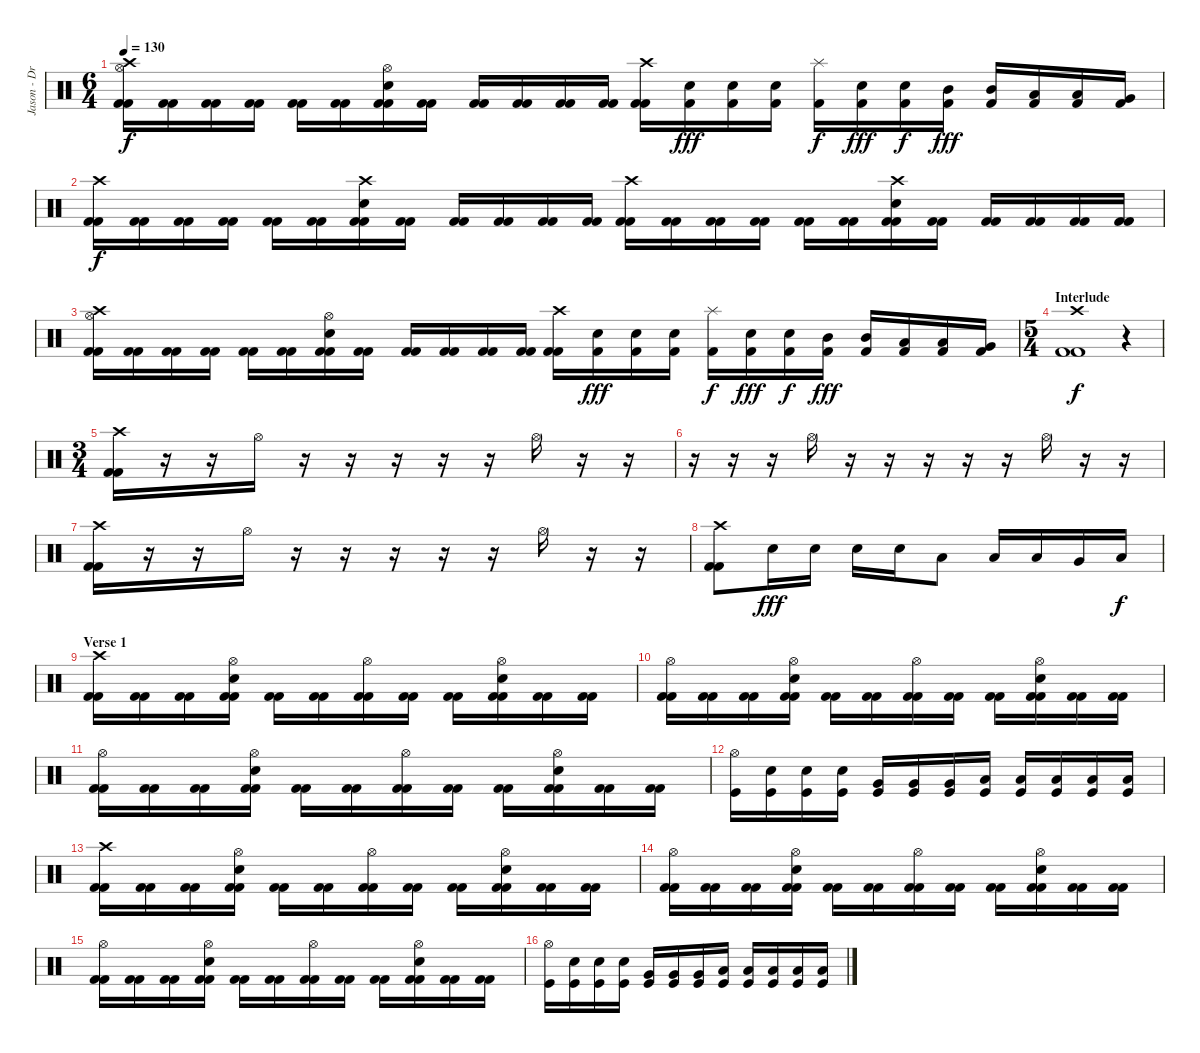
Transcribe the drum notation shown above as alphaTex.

\track ("Jason - Drums" "Jason - Dr") {instrument percussion}
\staff {score}
\articulation defaults
\ts (6 4)
\tempo 130
\clef neutral
\ks c
("Crash high (hit)" "Hi-Hat (open)" "Kick (hit) 2" "Kick (hit) 2").16{dy f} ("Kick (hit) 2" "Kick (hit) 2").16 ("Kick (hit) 2" "Kick (hit) 2").16 ("Kick (hit) 2" "Kick (hit) 2").16 ("Kick (hit) 2" "Kick (hit) 2").16 ("Kick (hit) 2" "Kick (hit) 2").16 ("Hi-Hat (open)" "Electric Snare (hit)" "Kick (hit) 2" "Kick (hit) 2").16 ("Kick (hit) 2" "Kick (hit) 2").16 ("Kick (hit) 2" "Kick (hit) 2").16 ("Kick (hit) 2" "Kick (hit) 2").16 ("Kick (hit) 2" "Kick (hit) 2").16 ("Kick (hit) 2" "Kick (hit) 2").16 ("Crash high (hit)" "Kick (hit) 2" "Kick (hit) 2").16 ("Electric Snare (hit)" "Kick (hit) 2").16{dy fff} ("Electric Snare (hit)" "Kick (hit) 2").16 ("Electric Snare (hit)" "Kick (hit) 2").16 ("Splash (hit)" "Kick (hit) 2").16{dy f} ("Electric Snare (hit)" "Kick (hit) 2").16{dy fff} ("Electric Snare (hit)" "Kick (hit) 2").16{dy f} ("Mid Tom (hit)" "Kick (hit) 2").16{dy fff} ("Mid Tom (hit)" "Kick (hit) 2").16 ("Low Tom (hit)" "Kick (hit) 2").16 ("Low Tom (hit)" "Kick (hit) 2").16 ("Very Low Tom (hit)" "Kick (hit) 2").16 |
("Crash high (hit)" "Kick (hit) 2" "Kick (hit) 2").16{dy f} ("Kick (hit) 2" "Kick (hit) 2").16 ("Kick (hit) 2" "Kick (hit) 2").16 ("Kick (hit) 2" "Kick (hit) 2").16 ("Kick (hit) 2" "Kick (hit) 2").16 ("Kick (hit) 2" "Kick (hit) 2").16 ("Crash high (hit)" "Electric Snare (hit)" "Kick (hit) 2" "Kick (hit) 2").16 ("Kick (hit) 2" "Kick (hit) 2").16 ("Kick (hit) 2" "Kick (hit) 2").16 ("Kick (hit) 2" "Kick (hit) 2").16 ("Kick (hit) 2" "Kick (hit) 2").16 ("Kick (hit) 2" "Kick (hit) 2").16 ("Crash high (hit)" "Kick (hit) 2" "Kick (hit) 2").16 ("Kick (hit) 2" "Kick (hit) 2").16 ("Kick (hit) 2" "Kick (hit) 2").16 ("Kick (hit) 2" "Kick (hit) 2").16 ("Kick (hit) 2" "Kick (hit) 2").16 ("Kick (hit) 2" "Kick (hit) 2").16 ("Crash high (hit)" "Electric Snare (hit)" "Kick (hit) 2" "Kick (hit) 2").16 ("Kick (hit) 2" "Kick (hit) 2").16 ("Kick (hit) 2" "Kick (hit) 2").16 ("Kick (hit) 2" "Kick (hit) 2").16 ("Kick (hit) 2" "Kick (hit) 2").16 ("Kick (hit) 2" "Kick (hit) 2").16 |
("Crash high (hit)" "Hi-Hat (open)" "Kick (hit) 2" "Kick (hit) 2").16 ("Kick (hit) 2" "Kick (hit) 2").16 ("Kick (hit) 2" "Kick (hit) 2").16 ("Kick (hit) 2" "Kick (hit) 2").16 ("Kick (hit) 2" "Kick (hit) 2").16 ("Kick (hit) 2" "Kick (hit) 2").16 ("Hi-Hat (open)" "Electric Snare (hit)" "Kick (hit) 2" "Kick (hit) 2").16 ("Kick (hit) 2" "Kick (hit) 2").16 ("Kick (hit) 2" "Kick (hit) 2").16 ("Kick (hit) 2" "Kick (hit) 2").16 ("Kick (hit) 2" "Kick (hit) 2").16 ("Kick (hit) 2" "Kick (hit) 2").16 ("Crash high (hit)" "Kick (hit) 2" "Kick (hit) 2").16 ("Electric Snare (hit)" "Kick (hit) 2").16{dy fff} ("Electric Snare (hit)" "Kick (hit) 2").16 ("Electric Snare (hit)" "Kick (hit) 2").16 ("Splash (hit)" "Kick (hit) 2").16{dy f} ("Electric Snare (hit)" "Kick (hit) 2").16{dy fff} ("Electric Snare (hit)" "Kick (hit) 2").16{dy f} ("Mid Tom (hit)" "Kick (hit) 2").16{dy fff} ("Mid Tom (hit)" "Kick (hit) 2").16 ("Low Tom (hit)" "Kick (hit) 2").16 ("Low Tom (hit)" "Kick (hit) 2").16 ("Very Low Tom (hit)" "Kick (hit) 2").16 |
\ts (5 4)
\section ("" "Interlude")
("Crash high (hit)" "Kick (hit) 2" "Kick (hit) 2").1{dy f} r.4 |
\ts (3 4)
("Crash high (hit)" "Kick (hit) 2" "Kick (hit) 2").16 r.16 r.16 "Hi-Hat (open)".16 r.16 r.16 r.16 r.16 r.16 "Hi-Hat (open)".16 r.16 r.16 |
r.16 r.16 r.16 "Hi-Hat (open)".16 r.16 r.16 r.16 r.16 r.16 "Hi-Hat (open)".16 r.16 r.16 |
("Crash high (hit)" "Kick (hit) 2" "Kick (hit) 2").16 r.16 r.16 "Hi-Hat (open)".16 r.16 r.16 r.16 r.16 r.16 "Hi-Hat (open)".16 r.16 r.16 |
("Crash high (hit)" "Kick (hit) 2" "Kick (hit) 2").8 "Electric Snare (hit)".16{dy fff} "Electric Snare (hit)".16 "Electric Snare (hit)".16 "Electric Snare (hit)".16 "Low Tom (hit)".8 "Low Tom (hit)".16 "Low Tom (hit)".16 "Very Low Tom (hit)".16 "Low Floor Tom (hit)".16{dy f} |
\section ("" "Verse 1")
("Crash high (hit)" "Kick (hit) 2" "Kick (hit) 2").16 ("Kick (hit) 2" "Kick (hit) 2").16 ("Kick (hit) 2" "Kick (hit) 2").16 ("Hi-Hat (open)" "Electric Snare (hit)" "Kick (hit) 2" "Kick (hit) 2").16 ("Kick (hit) 2" "Kick (hit) 2").16 ("Kick (hit) 2" "Kick (hit) 2").16 ("Hi-Hat (open)" "Kick (hit) 2" "Kick (hit) 2").16 ("Kick (hit) 2" "Kick (hit) 2").16 ("Kick (hit) 2" "Kick (hit) 2").16 ("Hi-Hat (open)" "Electric Snare (hit)" "Kick (hit) 2" "Kick (hit) 2").16 ("Kick (hit) 2" "Kick (hit) 2").16 ("Kick (hit) 2" "Kick (hit) 2").16 |
("Hi-Hat (open)" "Kick (hit) 2" "Kick (hit) 2").16 ("Kick (hit) 2" "Kick (hit) 2").16 ("Kick (hit) 2" "Kick (hit) 2").16 ("Hi-Hat (open)" "Electric Snare (hit)" "Kick (hit) 2" "Kick (hit) 2").16 ("Kick (hit) 2" "Kick (hit) 2").16 ("Kick (hit) 2" "Kick (hit) 2").16 ("Hi-Hat (open)" "Kick (hit) 2" "Kick (hit) 2").16 ("Kick (hit) 2" "Kick (hit) 2").16 ("Kick (hit) 2" "Kick (hit) 2").16 ("Hi-Hat (open)" "Electric Snare (hit)" "Kick (hit) 2" "Kick (hit) 2").16 ("Kick (hit) 2" "Kick (hit) 2").16 ("Kick (hit) 2" "Kick (hit) 2").16 |
("Hi-Hat (open)" "Kick (hit) 2" "Kick (hit) 2").16 ("Kick (hit) 2" "Kick (hit) 2").16 ("Kick (hit) 2" "Kick (hit) 2").16 ("Hi-Hat (open)" "Electric Snare (hit)" "Kick (hit) 2" "Kick (hit) 2").16 ("Kick (hit) 2" "Kick (hit) 2").16 ("Kick (hit) 2" "Kick (hit) 2").16 ("Hi-Hat (open)" "Kick (hit) 2" "Kick (hit) 2").16 ("Kick (hit) 2" "Kick (hit) 2").16 ("Kick (hit) 2" "Kick (hit) 2").16 ("Hi-Hat (open)" "Electric Snare (hit)" "Kick (hit) 2" "Kick (hit) 2").16 ("Kick (hit) 2" "Kick (hit) 2").16 ("Kick (hit) 2" "Kick (hit) 2").16 |
("Hi-Hat (open)" "Kick (hit)").16 ("Electric Snare (hit)" "Kick (hit)").16 ("Electric Snare (hit)" "Kick (hit)").16 ("Electric Snare (hit)" "Kick (hit)").16 ("Very Low Tom (hit)" "Kick (hit)").16 ("Very Low Tom (hit)" "Kick (hit)").16 ("Very Low Tom (hit)" "Kick (hit)").16 ("Low Floor Tom (hit)" "Kick (hit)").16 ("Low Floor Tom (hit)" "Kick (hit)").16 ("Low Floor Tom (hit)" "Kick (hit)").16 ("Low Floor Tom (hit)" "Kick (hit)").16 ("Low Floor Tom (hit)" "Kick (hit)").16 |
("Crash high (hit)" "Kick (hit) 2" "Kick (hit) 2").16 ("Kick (hit) 2" "Kick (hit) 2").16 ("Kick (hit) 2" "Kick (hit) 2").16 ("Hi-Hat (open)" "Electric Snare (hit)" "Kick (hit) 2" "Kick (hit) 2").16 ("Kick (hit) 2" "Kick (hit) 2").16 ("Kick (hit) 2" "Kick (hit) 2").16 ("Hi-Hat (open)" "Kick (hit) 2" "Kick (hit) 2").16 ("Kick (hit) 2" "Kick (hit) 2").16 ("Kick (hit) 2" "Kick (hit) 2").16 ("Hi-Hat (open)" "Electric Snare (hit)" "Kick (hit) 2" "Kick (hit) 2").16 ("Kick (hit) 2" "Kick (hit) 2").16 ("Kick (hit) 2" "Kick (hit) 2").16 |
("Hi-Hat (open)" "Kick (hit) 2" "Kick (hit) 2").16 ("Kick (hit) 2" "Kick (hit) 2").16 ("Kick (hit) 2" "Kick (hit) 2").16 ("Hi-Hat (open)" "Electric Snare (hit)" "Kick (hit) 2" "Kick (hit) 2").16 ("Kick (hit) 2" "Kick (hit) 2").16 ("Kick (hit) 2" "Kick (hit) 2").16 ("Hi-Hat (open)" "Kick (hit) 2" "Kick (hit) 2").16 ("Kick (hit) 2" "Kick (hit) 2").16 ("Kick (hit) 2" "Kick (hit) 2").16 ("Hi-Hat (open)" "Electric Snare (hit)" "Kick (hit) 2" "Kick (hit) 2").16 ("Kick (hit) 2" "Kick (hit) 2").16 ("Kick (hit) 2" "Kick (hit) 2").16 |
("Hi-Hat (open)" "Kick (hit) 2" "Kick (hit) 2").16 ("Kick (hit) 2" "Kick (hit) 2").16 ("Kick (hit) 2" "Kick (hit) 2").16 ("Hi-Hat (open)" "Electric Snare (hit)" "Kick (hit) 2" "Kick (hit) 2").16 ("Kick (hit) 2" "Kick (hit) 2").16 ("Kick (hit) 2" "Kick (hit) 2").16 ("Hi-Hat (open)" "Kick (hit) 2" "Kick (hit) 2").16 ("Kick (hit) 2" "Kick (hit) 2").16 ("Kick (hit) 2" "Kick (hit) 2").16 ("Hi-Hat (open)" "Electric Snare (hit)" "Kick (hit) 2" "Kick (hit) 2").16 ("Kick (hit) 2" "Kick (hit) 2").16 ("Kick (hit) 2" "Kick (hit) 2").16 |
("Hi-Hat (open)" "Kick (hit)").16 ("Electric Snare (hit)" "Kick (hit)").16 ("Electric Snare (hit)" "Kick (hit)").16 ("Electric Snare (hit)" "Kick (hit)").16 ("Very Low Tom (hit)" "Kick (hit)").16 ("Very Low Tom (hit)" "Kick (hit)").16 ("Very Low Tom (hit)" "Kick (hit)").16 ("Low Floor Tom (hit)" "Kick (hit)").16 ("Low Floor Tom (hit)" "Kick (hit)").16 ("Low Floor Tom (hit)" "Kick (hit)").16 ("Low Floor Tom (hit)" "Kick (hit)").16 ("Low Floor Tom (hit)" "Kick (hit)").16
